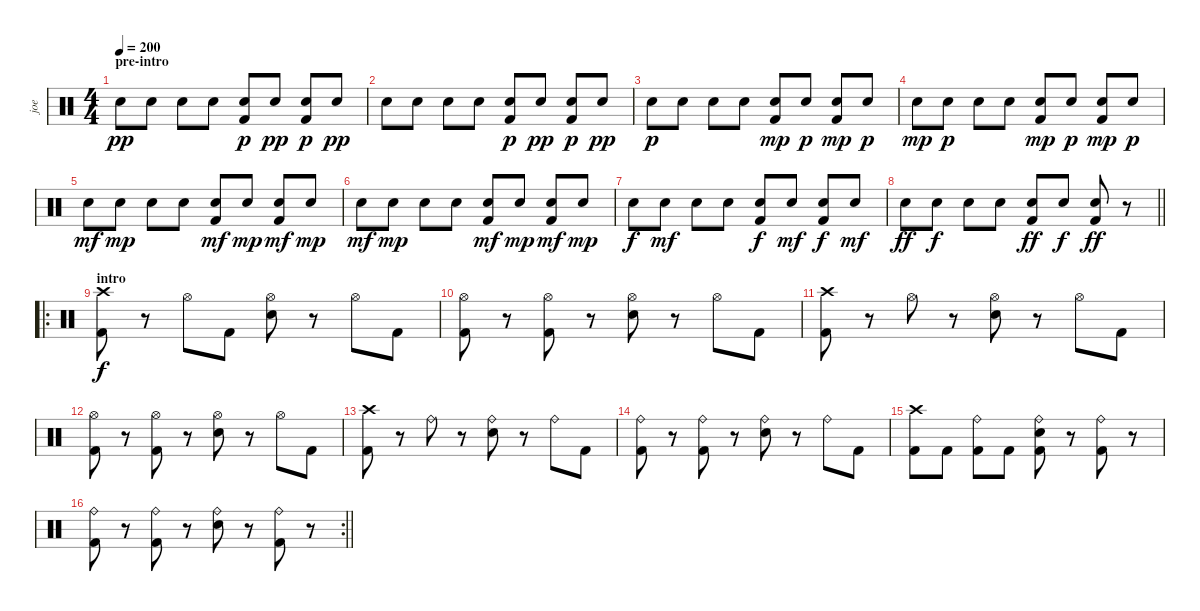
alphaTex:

\track ("joe" "joe") {instrument percussion}
\staff {score}
\articulation defaults
\ts (4 4)
\section ("" "pre-intro")
\tempo 200
\clef neutral
\ks c "Snare (hit) 2".8{dy pp} "Snare (hit) 2".8 "Snare (hit) 2".8 "Snare (hit) 2".8
("Snare (hit) 2" "Kick (hit) 2").8{dy p} "Snare (hit) 2".8{dy pp} ("Snare (hit) 2" "Kick (hit) 2").8{dy p} "Snare (hit) 2".8{dy pp} |
"Snare (hit) 2".8 "Snare (hit) 2".8 "Snare (hit) 2".8 "Snare (hit) 2".8 ("Snare (hit) 2" "Kick (hit) 2").8{dy p} "Snare (hit) 2".8{dy pp} ("Snare (hit) 2" "Kick (hit) 2").8{dy p} "Snare (hit) 2".8{dy pp} |
"Snare (hit) 2".8{dy p} "Snare (hit) 2".8 "Snare (hit) 2".8 "Snare (hit) 2".8 ("Snare (hit) 2" "Kick (hit) 2").8{dy mp} "Snare (hit) 2".8{dy p} ("Snare (hit) 2" "Kick (hit) 2").8{dy mp} "Snare (hit) 2".8{dy p} |
"Snare (hit) 2".8{dy mp} "Snare (hit) 2".8{dy p} "Snare (hit) 2".8 "Snare (hit) 2".8 ("Snare (hit) 2" "Kick (hit) 2").8{dy mp} "Snare (hit) 2".8{dy p} ("Snare (hit) 2" "Kick (hit) 2").8{dy mp} "Snare (hit) 2".8{dy p} |
"Snare (hit) 2".8{dy mf} "Snare (hit) 2".8{dy mp} "Snare (hit) 2".8 "Snare (hit) 2".8 ("Snare (hit) 2" "Kick (hit) 2").8{dy mf} "Snare (hit) 2".8{dy mp} ("Snare (hit) 2" "Kick (hit) 2").8{dy mf} "Snare (hit) 2".8{dy mp} |
"Snare (hit) 2".8{dy mf} "Snare (hit) 2".8{dy mp} "Snare (hit) 2".8 "Snare (hit) 2".8 ("Snare (hit) 2" "Kick (hit) 2").8{dy mf} "Snare (hit) 2".8{dy mp} ("Snare (hit) 2" "Kick (hit) 2").8{dy mf} "Snare (hit) 2".8{dy mp} |
"Snare (hit) 2".8{dy f} "Snare (hit) 2".8{dy mf} "Snare (hit) 2".8 "Snare (hit) 2".8 ("Snare (hit) 2" "Kick (hit) 2").8{dy f} "Snare (hit) 2".8{dy mf} ("Snare (hit) 2" "Kick (hit) 2").8{dy f} "Snare (hit) 2".8{dy mf} |
\barLineRight lightlight "Snare (hit) 2".8{dy ff} "Snare (hit) 2".8{dy f} "Snare (hit) 2".8 "Snare (hit) 2".8
("Snare (hit) 2" "Kick (hit) 2").8{dy ff} "Snare (hit) 2".8{dy f} ("Snare (hit) 2" "Kick (hit) 2").8{dy ff} r.8 |
\ro
\section ("" "intro")
("Crash high (hit)" "Kick (hit) 2").8{dy f} r.8 "Hi-Hat (open)".8 "Kick (hit) 2".8 ("Hi-Hat (open)" "Snare (hit) 2").8 r.8 "Hi-Hat (open)".8 "Kick (hit) 2".8 |
("Hi-Hat (open)" "Kick (hit) 2").8 r.8 ("Hi-Hat (open)" "Kick (hit) 2").8 r.8 ("Hi-Hat (open)" "Snare (hit) 2").8 r.8 "Hi-Hat (open)".8 "Kick (hit) 2".8 |
("Crash high (hit)" "Kick (hit) 2").8 r.8 "Hi-Hat (open)".8 r.8 ("Hi-Hat (open)" "Snare (hit) 2").8 r.8 "Hi-Hat (open)".8 "Kick (hit) 2".8 |
("Hi-Hat (open)" "Kick (hit) 2").8 r.8 ("Hi-Hat (open)" "Kick (hit) 2").8 r.8 ("Hi-Hat (open)" "Snare (hit) 2").8 r.8 "Hi-Hat (open)".8 "Kick (hit) 2".8 |
("Crash high (hit)" "Kick (hit) 2").8 r.8 "Ride (bell)".8 r.8 ("Ride (bell)" "Snare (hit) 2").8 r.8 "Ride (bell)".8 "Kick (hit) 2".8 |
("Ride (bell)" "Kick (hit) 2").8 r.8 ("Ride (bell)" "Kick (hit) 2").8 r.8 ("Ride (bell)" "Snare (hit) 2").8 r.8 "Ride (bell)".8 "Kick (hit) 2".8 |
("Crash high (hit)" "Kick (hit) 2").8 "Kick (hit) 2".8 ("Ride (bell)" "Kick (hit) 2").8 "Kick (hit) 2".8 ("Ride (bell)" "Snare (hit) 2" "Kick (hit) 2").8 r.8 ("Ride (bell)" "Kick (hit) 2").8 r.8 |
\rc 2
\barLineRight lightlight
("Ride (bell)" "Kick (hit) 2").8 r.8 ("Ride (bell)" "Kick (hit) 2").8 r.8 ("Ride (bell)" "Snare (hit) 2").8 r.8 ("Ride (bell)" "Kick (hit) 2").8 r.8
